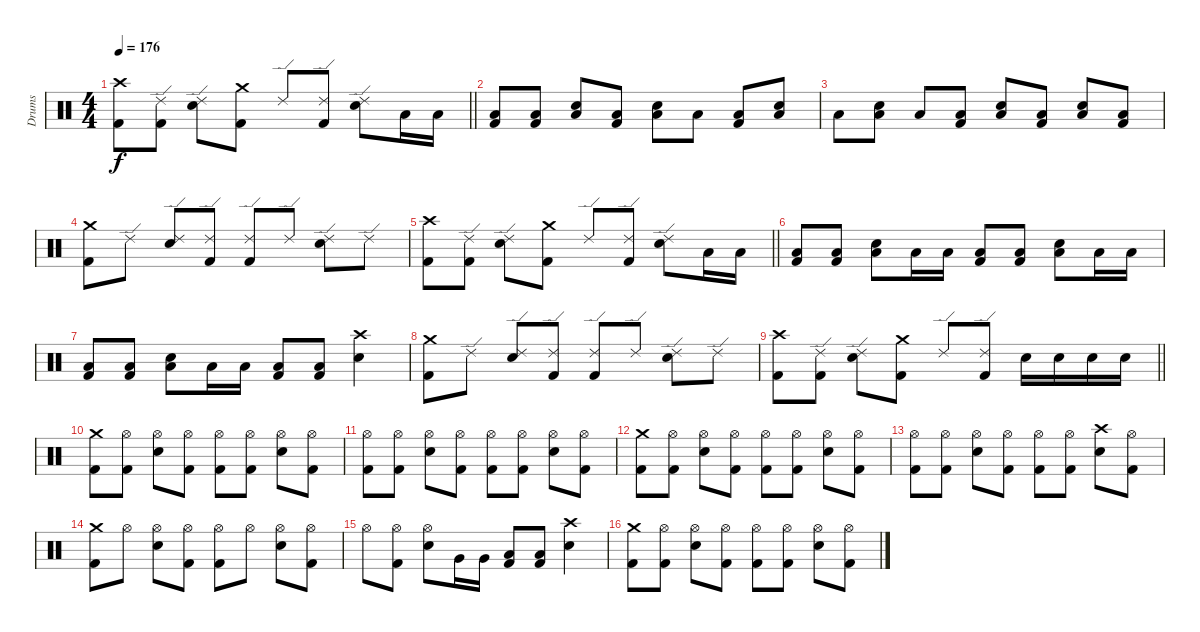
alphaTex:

\track ("Drums" "Drums") {instrument percussion}
\staff {score}
\articulation defaults
\ts (4 4)
\tempo 176
\clef neutral
\barLineRight lightlight
\ks c
("Crash high (hit)" "Kick (hit) 2").8{dy f} ("Ride (edge) 2" "Kick (hit) 2").8 ("Ride (edge) 2" "Electric Snare (hit)").8 ("Crash medium (hit)" "Kick (hit) 2").8 "Ride (edge) 2".8 ("Ride (edge) 2" "Kick (hit) 2").8 ("Ride (edge) 2" "Electric Snare (hit)").8 "Low Floor Tom (hit)".16 "Low Floor Tom (hit)".16 |
("Low Floor Tom (hit)" "Kick (hit) 2").8 ("Low Floor Tom (hit)" "Kick (hit) 2").8 ("Electric Snare (hit)" "Low Floor Tom (hit)").8 ("Low Floor Tom (hit)" "Kick (hit) 2").8 ("Electric Snare (hit)" "Low Floor Tom (hit)").8 "Low Floor Tom (hit)".8 ("Low Floor Tom (hit)" "Kick (hit) 2").8 ("Electric Snare (hit)" "Low Floor Tom (hit)").8 |
"Low Floor Tom (hit)".8 ("Electric Snare (hit)" "Low Floor Tom (hit)").8 "Low Floor Tom (hit)".8 ("Low Floor Tom (hit)" "Kick (hit) 2").8 ("Electric Snare (hit)" "Low Floor Tom (hit)").8 ("Low Floor Tom (hit)" "Kick (hit) 2").8 ("Electric Snare (hit)" "Low Floor Tom (hit)").8 ("Low Floor Tom (hit)" "Kick (hit) 2").8 |
("Crash medium (hit)" "Kick (hit) 2").8 "Ride (edge) 2".8 ("Ride (edge) 2" "Electric Snare (hit)").8 ("Ride (edge) 2" "Kick (hit) 2").8 ("Ride (edge) 2" "Kick (hit) 2").8 "Ride (edge) 2".8 ("Ride (edge) 2" "Electric Snare (hit)").8 "Ride (edge) 2".8 |
\barLineRight lightlight
("Crash high (hit)" "Kick (hit) 2").8 ("Ride (edge) 2" "Kick (hit) 2").8 ("Ride (edge) 2" "Electric Snare (hit)").8 ("Crash medium (hit)" "Kick (hit) 2").8 "Ride (edge) 2".8 ("Ride (edge) 2" "Kick (hit) 2").8 ("Ride (edge) 2" "Electric Snare (hit)").8 "Low Floor Tom (hit)".16 "Low Floor Tom (hit)".16 |
("Low Floor Tom (hit)" "Kick (hit) 2").8 ("Low Floor Tom (hit)" "Kick (hit) 2").8 ("Electric Snare (hit)" "Low Floor Tom (hit)").8 "Low Floor Tom (hit)".16 "Low Floor Tom (hit)".16 ("Low Floor Tom (hit)" "Kick (hit) 2").8 ("Low Floor Tom (hit)" "Kick (hit) 2").8 ("Electric Snare (hit)" "Low Floor Tom (hit)").8 "Low Floor Tom (hit)".16 "Low Floor Tom (hit)".16 |
("Low Floor Tom (hit)" "Kick (hit) 2").8 ("Low Floor Tom (hit)" "Kick (hit) 2").8 ("Electric Snare (hit)" "Low Floor Tom (hit)").8 "Low Floor Tom (hit)".16 "Low Floor Tom (hit)".16 ("Low Floor Tom (hit)" "Kick (hit) 2").8 ("Low Floor Tom (hit)" "Kick (hit) 2").8 ("Crash high (hit)" "Electric Snare (hit)").4 |
("Crash medium (hit)" "Kick (hit) 2").8 "Ride (edge) 2".8 ("Ride (edge) 2" "Electric Snare (hit)").8 ("Ride (edge) 2" "Kick (hit) 2").8 ("Ride (edge) 2" "Kick (hit) 2").8 "Ride (edge) 2".8 ("Ride (edge) 2" "Electric Snare (hit)").8 "Ride (edge) 2".8 |
\barLineRight lightlight
("Crash high (hit)" "Kick (hit) 2").8 ("Ride (edge) 2" "Kick (hit) 2").8 ("Ride (edge) 2" "Electric Snare (hit)").8 ("Crash medium (hit)" "Kick (hit) 2").8 "Ride (edge) 2".8 ("Ride (edge) 2" "Kick (hit) 2").8 "Electric Snare (hit)".16 "Electric Snare (hit)".16 "Electric Snare (hit)".16 "Electric Snare (hit)".16 |
("Crash medium (hit)" "Kick (hit) 2").8 ("Hi-Hat (open)" "Kick (hit) 2").8 ("Hi-Hat (open)" "Electric Snare (hit)").8 ("Hi-Hat (open)" "Kick (hit) 2").8 ("Hi-Hat (open)" "Kick (hit) 2").8 ("Hi-Hat (open)" "Kick (hit) 2").8 ("Hi-Hat (open)" "Electric Snare (hit)").8 ("Hi-Hat (open)" "Kick (hit) 2").8 |
("Hi-Hat (open)" "Kick (hit) 2").8 ("Hi-Hat (open)" "Kick (hit) 2").8 ("Hi-Hat (open)" "Electric Snare (hit)").8 ("Hi-Hat (open)" "Kick (hit) 2").8 ("Hi-Hat (open)" "Kick (hit) 2").8 ("Hi-Hat (open)" "Kick (hit) 2").8 ("Hi-Hat (open)" "Electric Snare (hit)").8 ("Hi-Hat (open)" "Kick (hit) 2").8 |
("Crash medium (hit)" "Kick (hit) 2").8 ("Hi-Hat (open)" "Kick (hit) 2").8 ("Hi-Hat (open)" "Electric Snare (hit)").8 ("Hi-Hat (open)" "Kick (hit) 2").8 ("Hi-Hat (open)" "Kick (hit) 2").8 ("Hi-Hat (open)" "Kick (hit) 2").8 ("Hi-Hat (open)" "Electric Snare (hit)").8 ("Hi-Hat (open)" "Kick (hit) 2").8 |
("Hi-Hat (open)" "Kick (hit) 2").8 ("Hi-Hat (open)" "Kick (hit) 2").8 ("Hi-Hat (open)" "Electric Snare (hit)").8 ("Hi-Hat (open)" "Kick (hit) 2").8 ("Hi-Hat (open)" "Kick (hit) 2").8 ("Hi-Hat (open)" "Kick (hit) 2").8 ("Crash high (hit)" "Electric Snare (hit)").8 ("Hi-Hat (open)" "Kick (hit) 2").8 |
("Crash medium (hit)" "Kick (hit) 2").8 "Hi-Hat (open)".8 ("Hi-Hat (open)" "Electric Snare (hit)").8 ("Hi-Hat (open)" "Kick (hit) 2").8 ("Hi-Hat (open)" "Kick (hit) 2").8 "Hi-Hat (open)".8 ("Hi-Hat (open)" "Electric Snare (hit)").8 ("Hi-Hat (open)" "Kick (hit) 2").8 |
"Hi-Hat (open)".8 ("Hi-Hat (open)" "Kick (hit) 2").8 ("Hi-Hat (open)" "Electric Snare (hit)").8 "Very Low Tom (hit)".16 "Very Low Tom (hit)".16 ("Low Floor Tom (hit)" "Kick (hit) 2").8 ("Low Floor Tom (hit)" "Kick (hit) 2").8 ("Crash high (hit)" "Electric Snare (hit)").4 |
("Crash medium (hit)" "Kick (hit) 2").8 ("Hi-Hat (open)" "Kick (hit) 2").8 ("Hi-Hat (open)" "Electric Snare (hit)").8 ("Hi-Hat (open)" "Kick (hit) 2").8 ("Hi-Hat (open)" "Kick (hit) 2").8 ("Hi-Hat (open)" "Kick (hit) 2").8 ("Hi-Hat (open)" "Electric Snare (hit)").8 ("Hi-Hat (open)" "Kick (hit) 2").8
